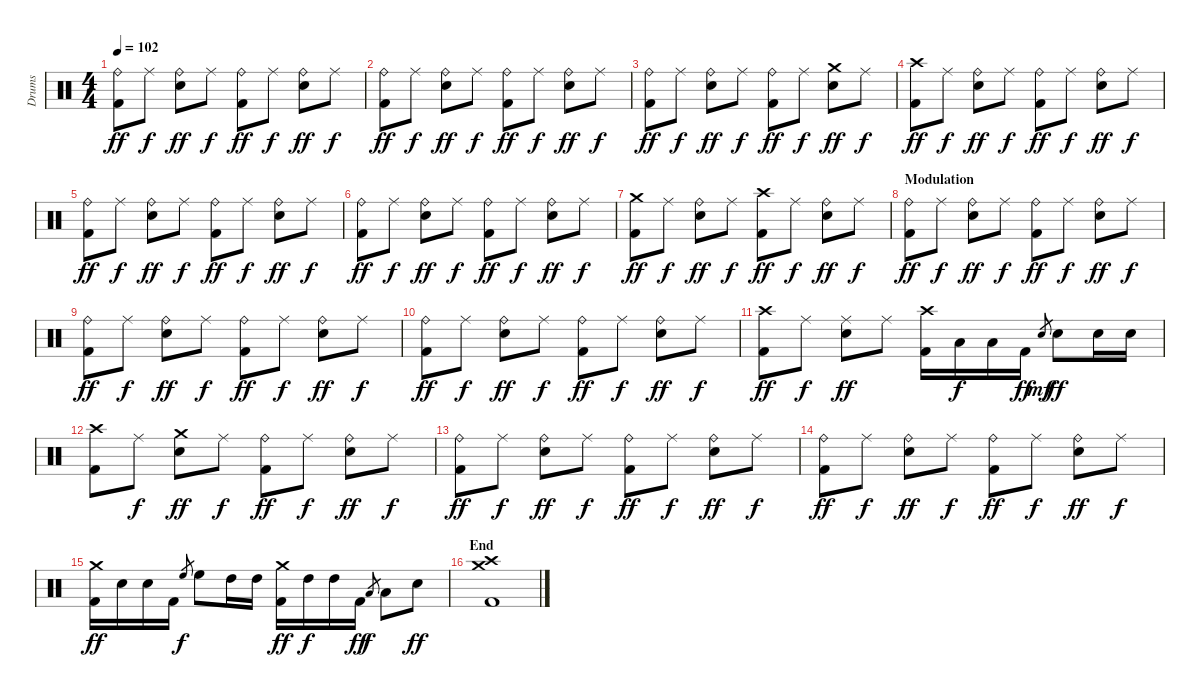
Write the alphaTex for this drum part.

\track ("Drums" "Drums") {instrument percussion}
\staff {score}
\articulation defaults
\ts (4 4)
\tempo 102
\clef neutral
\ks c
("Ride (bell)" "Kick (hit) 2").8{dy ff} "Ride (middle)".8{dy f} ("Ride (bell)" "Electric Snare (hit)").8{dy ff} "Ride (middle)".8{dy f} ("Ride (bell)" "Kick (hit) 2").8{dy ff} "Ride (middle)".8{dy f} ("Ride (bell)" "Electric Snare (hit)").8{dy ff} "Ride (middle)".8{dy f} |
("Ride (bell)" "Kick (hit) 2").8{dy ff} "Ride (middle)".8{dy f} ("Ride (bell)" "Electric Snare (hit)").8{dy ff} "Ride (middle)".8{dy f} ("Ride (bell)" "Kick (hit) 2").8{dy ff} "Ride (middle)".8{dy f} ("Ride (bell)" "Electric Snare (hit)").8{dy ff} "Ride (middle)".8{dy f} |
("Ride (bell)" "Kick (hit) 2").8{dy ff} "Ride (middle)".8{dy f} ("Ride (bell)" "Electric Snare (hit)").8{dy ff} "Ride (middle)".8{dy f} ("Ride (bell)" "Kick (hit) 2").8{dy ff} "Ride (middle)".8{dy f} ("Crash medium (hit)" "Electric Snare (hit)").8{dy ff} "Ride (middle)".8{dy f} |
("Crash high (hit)" "Kick (hit) 2").8{dy ff} "Ride (middle)".8{dy f} ("Ride (bell)" "Electric Snare (hit)").8{dy ff} "Ride (middle)".8{dy f} ("Ride (bell)" "Kick (hit) 2").8{dy ff} "Ride (middle)".8{dy f} ("Ride (bell)" "Electric Snare (hit)").8{dy ff} "Ride (middle)".8{dy f} |
("Ride (bell)" "Kick (hit) 2").8{dy ff} "Ride (middle)".8{dy f} ("Ride (bell)" "Electric Snare (hit)").8{dy ff} "Ride (middle)".8{dy f} ("Ride (bell)" "Kick (hit) 2").8{dy ff} "Ride (middle)".8{dy f} ("Ride (bell)" "Electric Snare (hit)").8{dy ff} "Ride (middle)".8{dy f} |
("Ride (bell)" "Kick (hit) 2").8{dy ff} "Ride (middle)".8{dy f} ("Ride (bell)" "Electric Snare (hit)").8{dy ff} "Ride (middle)".8{dy f} ("Ride (bell)" "Kick (hit) 2").8{dy ff} "Ride (middle)".8{dy f} ("Ride (bell)" "Electric Snare (hit)").8{dy ff} "Ride (middle)".8{dy f} |
("Crash medium (hit)" "Kick (hit) 2").8{dy ff} "Ride (middle)".8{dy f} ("Ride (bell)" "Electric Snare (hit)").8{dy ff} "Ride (middle)".8{dy f} ("Crash high (hit)" "Kick (hit) 2").8{dy ff} "Ride (middle)".8{dy f} ("Ride (bell)" "Electric Snare (hit)").8{dy ff} "Ride (middle)".8{dy f} |
\section ("" "Modulation")
("Ride (bell)" "Kick (hit) 2").8{dy ff} "Ride (middle)".8{dy f} ("Ride (bell)" "Electric Snare (hit)").8{dy ff} "Ride (middle)".8{dy f} ("Ride (bell)" "Kick (hit) 2").8{dy ff} "Ride (middle)".8{dy f} ("Ride (bell)" "Electric Snare (hit)").8{dy ff} "Ride (middle)".8{dy f} |
("Ride (bell)" "Kick (hit) 2").8{dy ff} "Ride (middle)".8{dy f} ("Ride (bell)" "Electric Snare (hit)").8{dy ff} "Ride (middle)".8{dy f} ("Ride (bell)" "Kick (hit) 2").8{dy ff} "Ride (middle)".8{dy f} ("Ride (bell)" "Electric Snare (hit)").8{dy ff} "Ride (middle)".8{dy f} |
("Ride (bell)" "Kick (hit) 2").8{dy ff} "Ride (middle)".8{dy f} ("Ride (bell)" "Electric Snare (hit)").8{dy ff} "Ride (middle)".8{dy f} ("Ride (bell)" "Kick (hit) 2").8{dy ff} "Ride (middle)".8{dy f} ("Ride (bell)" "Electric Snare (hit)").8{dy ff} "Ride (middle)".8{dy f} |
("Crash high (hit)" "Kick (hit) 2").8{dy ff} "Ride (middle)".8{dy f} ("Ride (middle)" "Electric Snare (hit)").8{dy ff} "Ride (middle)".8 ("Crash high (hit)" "Kick (hit) 2").16 "Low Floor Tom (hit)".16{dy f} "Low Tom (hit)".16 "Kick (hit) 2".16{dy ff} "Electric Snare (hit)".8{gr dy mf} "Electric Snare (hit)".8{dy ff} "Electric Snare (hit)".16 "Electric Snare (hit)".16 |
("Crash high (hit)" "Kick (hit) 2").8 "Ride (middle)".8{dy f} ("Crash medium (hit)" "Electric Snare (hit)").8{dy ff} "Ride (middle)".8{dy f} ("Ride (bell)" "Kick (hit) 2").8{dy ff} "Ride (middle)".8{dy f} ("Ride (bell)" "Electric Snare (hit)").8{dy ff} "Ride (middle)".8{dy f} |
("Ride (bell)" "Kick (hit) 2").8{dy ff} "Ride (middle)".8{dy f} ("Ride (bell)" "Electric Snare (hit)").8{dy ff} "Ride (middle)".8{dy f} ("Ride (bell)" "Kick (hit) 2").8{dy ff} "Ride (middle)".8{dy f} ("Ride (bell)" "Electric Snare (hit)").8{dy ff} "Ride (middle)".8{dy f} |
("Ride (bell)" "Kick (hit) 2").8{dy ff} "Ride (middle)".8{dy f} ("Ride (bell)" "Electric Snare (hit)").8{dy ff} "Ride (middle)".8{dy f} ("Ride (bell)" "Kick (hit) 2").8{dy ff} "Ride (middle)".8{dy f} ("Ride (bell)" "Electric Snare (hit)").8{dy ff} "Ride (middle)".8{dy f} |
("Crash medium (hit)" "Kick (hit) 2").16{dy ff} "Electric Snare (hit)".16 "Electric Snare (hit)".16 "Kick (hit) 2".16 "High Floor Tom (hit)".8{gr dy f} "High Floor Tom (hit)".8 "High Tom (hit)".16 "High Tom (hit)".16 ("Crash medium (hit)" "Kick (hit) 2").16{dy ff} "High Tom (hit)".16{dy f} "High Tom (hit)".16 "Kick (hit) 2".16{dy ff} "Low Tom (hit)".8{gr dy f} "Low Floor Tom (hit)".8 "Electric Snare (hit)".8{dy ff} |
\section ("" "End")
("Crash medium (hit)" "Crash high (hit)" "Kick (hit) 2").1
